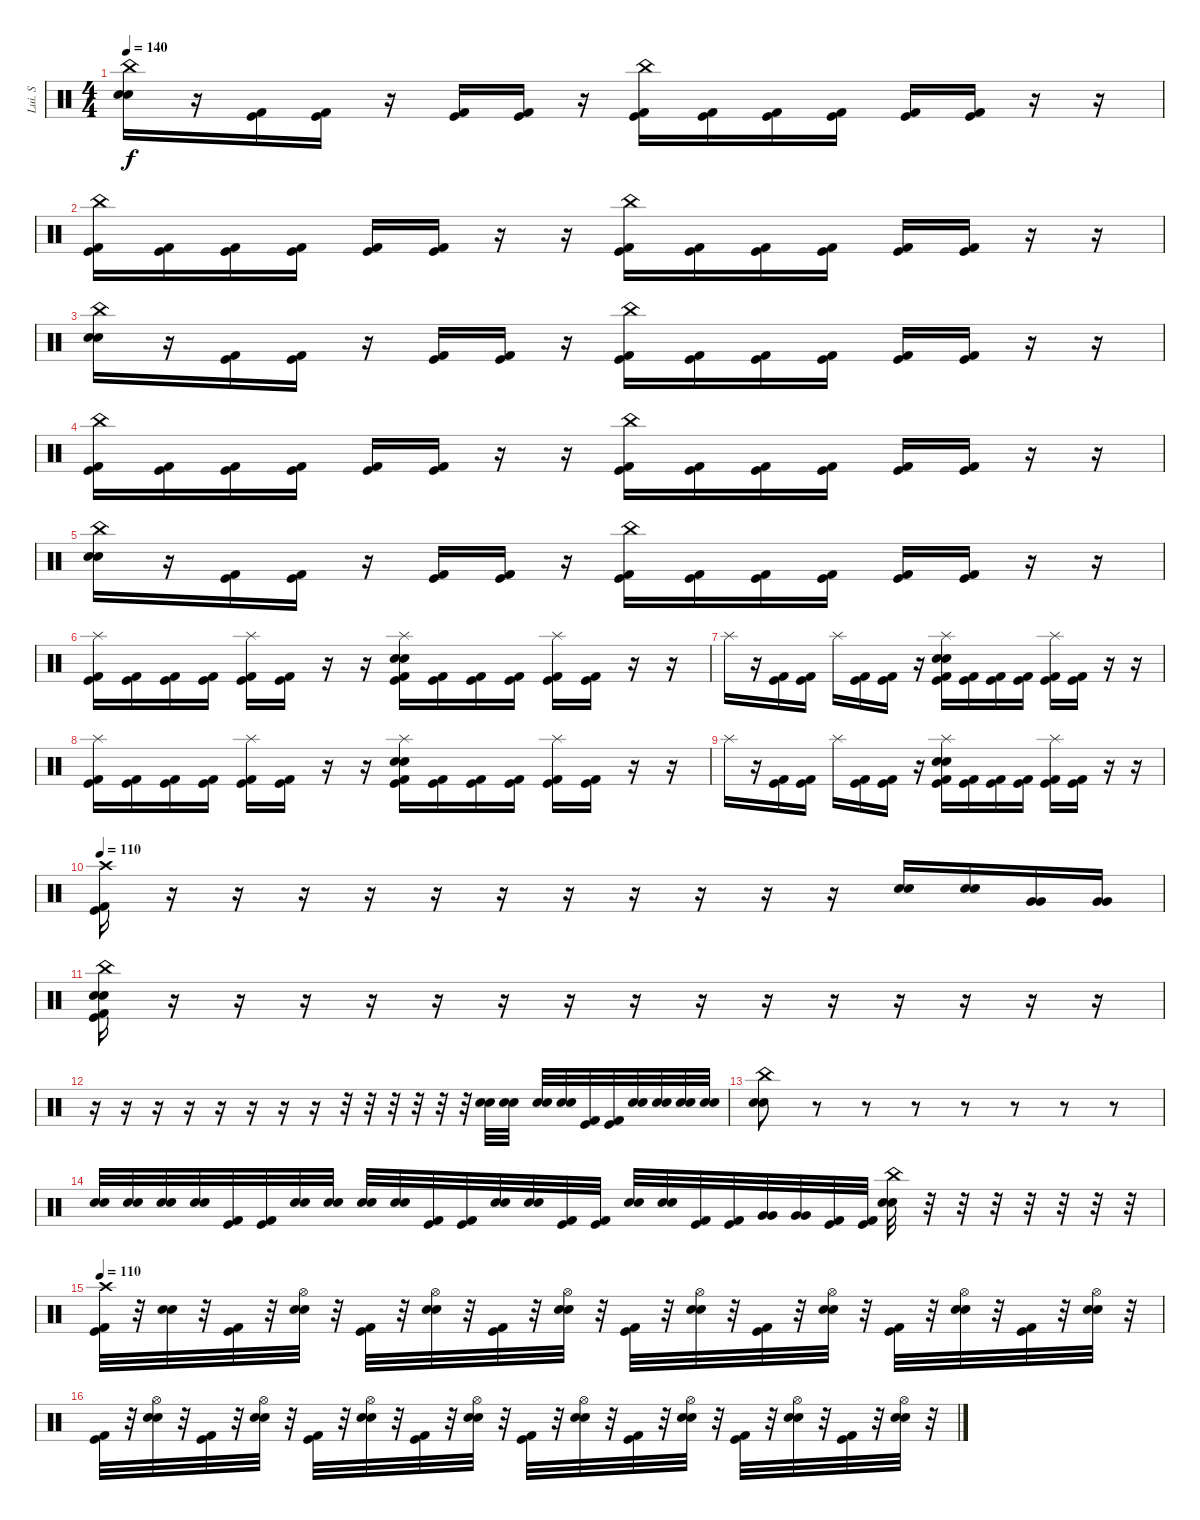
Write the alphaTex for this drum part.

\track ("Lui. S" "Lui. S") {instrument percussion}
\staff {score}
\articulation defaults
\ts (4 4)
\tempo 140
\clef neutral
\ks c
("China (hit)" "Electric Snare (hit)" "Snare (hit) 2").16{dy f} r.16 ("Kick (hit)" "Kick (hit) 2").16 ("Kick (hit)" "Kick (hit) 2").16 r.16 ("Kick (hit)" "Kick (hit) 2").16 ("Kick (hit)" "Kick (hit) 2").16 r.16 ("China (hit)" "Kick (hit)" "Kick (hit) 2").16 ("Kick (hit)" "Kick (hit) 2").16 ("Kick (hit)" "Kick (hit) 2").16 ("Kick (hit)" "Kick (hit) 2").16 ("Kick (hit)" "Kick (hit) 2").16 ("Kick (hit)" "Kick (hit) 2").16 r.16 r.16 |
("China (hit)" "Kick (hit)" "Kick (hit) 2").16 ("Kick (hit)" "Kick (hit) 2").16 ("Kick (hit)" "Kick (hit) 2").16 ("Kick (hit)" "Kick (hit) 2").16 ("Kick (hit)" "Kick (hit) 2").16 ("Kick (hit)" "Kick (hit) 2").16 r.16 r.16 ("China (hit)" "Kick (hit)" "Kick (hit) 2").16 ("Kick (hit)" "Kick (hit) 2").16 ("Kick (hit)" "Kick (hit) 2").16 ("Kick (hit)" "Kick (hit) 2").16 ("Kick (hit)" "Kick (hit) 2").16 ("Kick (hit)" "Kick (hit) 2").16 r.16 r.16 |
("China (hit)" "Electric Snare (hit)" "Snare (hit) 2").16 r.16 ("Kick (hit)" "Kick (hit) 2").16 ("Kick (hit)" "Kick (hit) 2").16 r.16 ("Kick (hit)" "Kick (hit) 2").16 ("Kick (hit)" "Kick (hit) 2").16 r.16 ("China (hit)" "Kick (hit)" "Kick (hit) 2").16 ("Kick (hit)" "Kick (hit) 2").16 ("Kick (hit)" "Kick (hit) 2").16 ("Kick (hit)" "Kick (hit) 2").16 ("Kick (hit)" "Kick (hit) 2").16 ("Kick (hit)" "Kick (hit) 2").16 r.16 r.16 |
("China (hit)" "Kick (hit)" "Kick (hit) 2").16 ("Kick (hit)" "Kick (hit) 2").16 ("Kick (hit)" "Kick (hit) 2").16 ("Kick (hit)" "Kick (hit) 2").16 ("Kick (hit)" "Kick (hit) 2").16 ("Kick (hit)" "Kick (hit) 2").16 r.16 r.16 ("China (hit)" "Kick (hit)" "Kick (hit) 2").16 ("Kick (hit)" "Kick (hit) 2").16 ("Kick (hit)" "Kick (hit) 2").16 ("Kick (hit)" "Kick (hit) 2").16 ("Kick (hit)" "Kick (hit) 2").16 ("Kick (hit)" "Kick (hit) 2").16 r.16 r.16 |
("China (hit)" "Electric Snare (hit)" "Snare (hit) 2").16 r.16 ("Kick (hit)" "Kick (hit) 2").16 ("Kick (hit)" "Kick (hit) 2").16 r.16 ("Kick (hit)" "Kick (hit) 2").16 ("Kick (hit)" "Kick (hit) 2").16 r.16 ("China (hit)" "Kick (hit)" "Kick (hit) 2").16 ("Kick (hit)" "Kick (hit) 2").16 ("Kick (hit)" "Kick (hit) 2").16 ("Kick (hit)" "Kick (hit) 2").16 ("Kick (hit)" "Kick (hit) 2").16 ("Kick (hit)" "Kick (hit) 2").16 r.16 r.16 |
("Splash (hit)" "Kick (hit)" "Kick (hit) 2").16 ("Kick (hit)" "Kick (hit) 2").16 ("Kick (hit)" "Kick (hit) 2").16 ("Kick (hit)" "Kick (hit) 2").16 ("Splash (hit)" "Kick (hit)" "Kick (hit) 2").16 ("Kick (hit)" "Kick (hit) 2").16 r.16 r.16 ("Splash (hit)" "Electric Snare (hit)" "Snare (hit) 2" "Kick (hit)" "Kick (hit) 2").16 ("Kick (hit)" "Kick (hit) 2").16 ("Kick (hit)" "Kick (hit) 2").16 ("Kick (hit)" "Kick (hit) 2").16 ("Splash (hit)" "Kick (hit)" "Kick (hit) 2").16 ("Kick (hit)" "Kick (hit) 2").16 r.16 r.16 |
"Splash (hit)".16 r.16 ("Kick (hit)" "Kick (hit) 2").16 ("Kick (hit)" "Kick (hit) 2").16 "Splash (hit)".16 ("Kick (hit)" "Kick (hit) 2").16 ("Kick (hit)" "Kick (hit) 2").16 r.16 ("Splash (hit)" "Electric Snare (hit)" "Snare (hit) 2" "Kick (hit)" "Kick (hit) 2").16 ("Kick (hit)" "Kick (hit) 2").16 ("Kick (hit)" "Kick (hit) 2").16 ("Kick (hit)" "Kick (hit) 2").16 ("Splash (hit)" "Kick (hit)" "Kick (hit) 2").16 ("Kick (hit)" "Kick (hit) 2").16 r.16 r.16 |
("Splash (hit)" "Kick (hit)" "Kick (hit) 2").16 ("Kick (hit)" "Kick (hit) 2").16 ("Kick (hit)" "Kick (hit) 2").16 ("Kick (hit)" "Kick (hit) 2").16 ("Splash (hit)" "Kick (hit)" "Kick (hit) 2").16 ("Kick (hit)" "Kick (hit) 2").16 r.16 r.16 ("Splash (hit)" "Electric Snare (hit)" "Snare (hit) 2" "Kick (hit)" "Kick (hit) 2").16 ("Kick (hit)" "Kick (hit) 2").16 ("Kick (hit)" "Kick (hit) 2").16 ("Kick (hit)" "Kick (hit) 2").16 ("Splash (hit)" "Kick (hit)" "Kick (hit) 2").16 ("Kick (hit)" "Kick (hit) 2").16 r.16 r.16 |
"Splash (hit)".16 r.16 ("Kick (hit)" "Kick (hit) 2").16 ("Kick (hit)" "Kick (hit) 2").16 "Splash (hit)".16 ("Kick (hit)" "Kick (hit) 2").16 ("Kick (hit)" "Kick (hit) 2").16 r.16 ("Splash (hit)" "Electric Snare (hit)" "Snare (hit) 2" "Kick (hit)" "Kick (hit) 2").16 ("Kick (hit)" "Kick (hit) 2").16 ("Kick (hit)" "Kick (hit) 2").16 ("Kick (hit)" "Kick (hit) 2").16 ("Splash (hit)" "Kick (hit)" "Kick (hit) 2").16 ("Kick (hit)" "Kick (hit) 2").16 r.16 r.16 |
\tempo 110
("Crash high (hit)" "Kick (hit) 2" "Kick (hit)").16 r.16 r.16 r.16 r.16 r.16 r.16 r.16 r.16 r.16 r.16 r.16 ("Electric Snare (hit)" "Snare (hit) 2").16 ("Electric Snare (hit)" "Snare (hit) 2").16 ("Very Low Tom (hit)" "Very Low Tom (hit)").16 ("Very Low Tom (hit)" "Very Low Tom (hit)").16 |
("China (hit)" "Snare (hit) 2" "Electric Snare (hit)" "Kick (hit) 2" "Kick (hit)").16 r.16 r.16 r.16 r.16 r.16 r.16 r.16 r.16 r.16 r.16 r.16 r.16 r.16 r.16 r.16 |
r.16 r.16 r.16 r.16 r.16 r.16 r.16 r.16 r.32 r.32 r.32 r.32 r.32 r.32 ("Electric Snare (hit)" "Snare (hit) 2").32 ("Electric Snare (hit)" "Snare (hit) 2").32 ("Electric Snare (hit)" "Snare (hit) 2").32 ("Electric Snare (hit)" "Snare (hit) 2").32 ("Kick (hit) 2" "Kick (hit)").32 ("Kick (hit) 2" "Kick (hit)").32 ("Electric Snare (hit)" "Snare (hit) 2").32 ("Electric Snare (hit)" "Snare (hit) 2").32 ("Electric Snare (hit)" "Snare (hit) 2").32 ("Electric Snare (hit)" "Snare (hit) 2").32 |
("China (hit)" "Electric Snare (hit)" "Snare (hit) 2").8 r.8 r.8 r.8 r.8 r.8 r.8 r.8 |
("Electric Snare (hit)" "Snare (hit) 2").32 ("Electric Snare (hit)" "Snare (hit) 2").32 ("Electric Snare (hit)" "Snare (hit) 2").32 ("Electric Snare (hit)" "Snare (hit) 2").32 ("Kick (hit) 2" "Kick (hit)").32 ("Kick (hit) 2" "Kick (hit)").32 ("Electric Snare (hit)" "Snare (hit) 2").32 ("Electric Snare (hit)" "Snare (hit) 2").32 ("Electric Snare (hit)" "Snare (hit) 2").32 ("Electric Snare (hit)" "Snare (hit) 2").32 ("Kick (hit) 2" "Kick (hit)").32 ("Kick (hit) 2" "Kick (hit)").32 ("Electric Snare (hit)" "Snare (hit) 2").32 ("Electric Snare (hit)" "Snare (hit) 2").32 ("Kick (hit) 2" "Kick (hit)").32 ("Kick (hit) 2" "Kick (hit)").32 ("Electric Snare (hit)" "Snare (hit) 2").32 ("Electric Snare (hit)" "Snare (hit) 2").32 ("Kick (hit) 2" "Kick (hit)").32 ("Kick (hit) 2" "Kick (hit)").32 ("Very Low Tom (hit)" "Very Low Tom (hit)").32 ("Very Low Tom (hit)" "Very Low Tom (hit)").32 ("Kick (hit) 2" "Kick (hit)").32 ("Kick (hit) 2" "Kick (hit)").32 ("China (hit)" "Electric Snare (hit)" "Snare (hit) 2").32 r.32 r.32 r.32 r.32 r.32 r.32 r.32 |
\tempo 110
("Crash high (hit)" "Kick (hit) 2" "Kick (hit)").32 r.32 ("Electric Snare (hit)" "Snare (hit) 2").32 r.32 ("Kick (hit) 2" "Kick (hit)").32 r.32 ("Hi-Hat (open)" "Electric Snare (hit)" "Snare (hit) 2").32 r.32 ("Kick (hit) 2" "Kick (hit)").32 r.32 ("Hi-Hat (open)" "Electric Snare (hit)" "Snare (hit) 2").32 r.32 ("Kick (hit) 2" "Kick (hit)").32 r.32 ("Hi-Hat (open)" "Electric Snare (hit)" "Snare (hit) 2").32 r.32 ("Kick (hit) 2" "Kick (hit)").32 r.32 ("Hi-Hat (open)" "Electric Snare (hit)" "Snare (hit) 2").32 r.32 ("Kick (hit) 2" "Kick (hit)").32 r.32 ("Hi-Hat (open)" "Electric Snare (hit)" "Snare (hit) 2").32 r.32 ("Kick (hit) 2" "Kick (hit)").32 r.32 ("Hi-Hat (open)" "Electric Snare (hit)" "Snare (hit) 2").32 r.32 ("Kick (hit) 2" "Kick (hit)").32 r.32 ("Hi-Hat (open)" "Electric Snare (hit)" "Snare (hit) 2").32 r.32 |
("Kick (hit) 2" "Kick (hit)").32 r.32 ("Hi-Hat (open)" "Electric Snare (hit)" "Snare (hit) 2").32 r.32 ("Kick (hit) 2" "Kick (hit)").32 r.32 ("Hi-Hat (open)" "Electric Snare (hit)" "Snare (hit) 2").32 r.32 ("Kick (hit) 2" "Kick (hit)").32 r.32 ("Hi-Hat (open)" "Electric Snare (hit)" "Snare (hit) 2").32 r.32 ("Kick (hit) 2" "Kick (hit)").32 r.32 ("Hi-Hat (open)" "Electric Snare (hit)" "Snare (hit) 2").32 r.32 ("Kick (hit) 2" "Kick (hit)").32 r.32 ("Hi-Hat (open)" "Electric Snare (hit)" "Snare (hit) 2").32 r.32 ("Kick (hit) 2" "Kick (hit)").32 r.32 ("Hi-Hat (open)" "Electric Snare (hit)" "Snare (hit) 2").32 r.32 ("Kick (hit) 2" "Kick (hit)").32 r.32 ("Hi-Hat (open)" "Electric Snare (hit)" "Snare (hit) 2").32 r.32 ("Kick (hit) 2" "Kick (hit)").32 r.32 ("Hi-Hat (open)" "Electric Snare (hit)" "Snare (hit) 2").32 r.32
